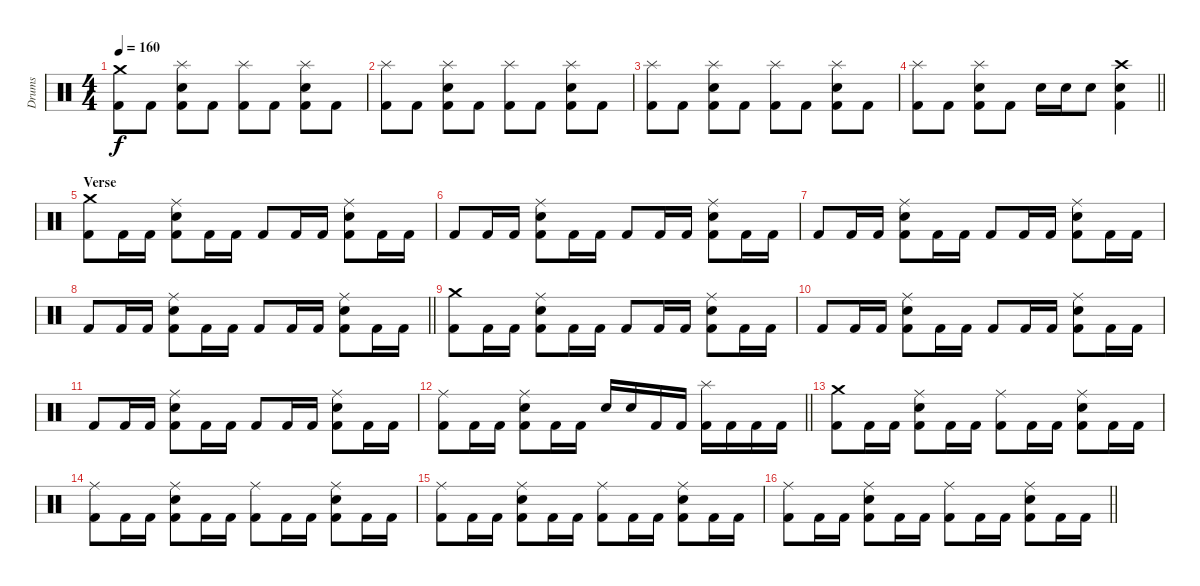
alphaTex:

\track ("Drums" "Drums") {instrument percussion}
\staff {score}
\articulation defaults
\ts (4 4)
\section ("" "")
\tempo 160
\clef neutral
\ks c
("Kick (hit) 2" "Crash medium (hit)").8{dy f} "Kick (hit) 2".8 ("Kick (hit) 2" "Snare (hit) 2" "Splash (hit)").8 "Kick (hit) 2".8 ("Kick (hit) 2" "Splash (hit)").8 "Kick (hit) 2".8 ("Kick (hit) 2" "Snare (hit) 2" "Splash (hit)").8 "Kick (hit) 2".8 |
("Kick (hit) 2" "Splash (hit)").8 "Kick (hit) 2".8 ("Kick (hit) 2" "Snare (hit) 2" "Splash (hit)").8 "Kick (hit) 2".8 ("Kick (hit) 2" "Splash (hit)").8 "Kick (hit) 2".8 ("Kick (hit) 2" "Snare (hit) 2" "Splash (hit)").8 "Kick (hit) 2".8 |
("Kick (hit) 2" "Splash (hit)").8 "Kick (hit) 2".8 ("Kick (hit) 2" "Snare (hit) 2" "Splash (hit)").8 "Kick (hit) 2".8 ("Kick (hit) 2" "Splash (hit)").8 "Kick (hit) 2".8 ("Kick (hit) 2" "Snare (hit) 2" "Splash (hit)").8 "Kick (hit) 2".8 |
\barLineRight lightlight
("Kick (hit) 2" "Splash (hit)").8 "Kick (hit) 2".8 ("Kick (hit) 2" "Snare (hit) 2" "Splash (hit)").8 "Kick (hit) 2".8 "Snare (hit) 2".16 "Snare (hit) 2".16 "Snare (hit) 2".8 ("Kick (hit) 2" "Snare (hit) 2" "Crash high (hit)").4 |
\section ("" "Verse")
("Kick (hit) 2" "Crash medium (hit)").8 "Kick (hit) 2".16 "Kick (hit) 2".16 ("Kick (hit) 2" "Snare (hit) 2" "Ride (middle)").8 "Kick (hit) 2".16 "Kick (hit) 2".16 "Kick (hit) 2".8 "Kick (hit) 2".16 "Kick (hit) 2".16 ("Kick (hit) 2" "Snare (hit) 2" "Ride (middle)").8 "Kick (hit) 2".16 "Kick (hit) 2".16 |
"Kick (hit) 2".8 "Kick (hit) 2".16 "Kick (hit) 2".16 ("Kick (hit) 2" "Snare (hit) 2" "Ride (middle)").8 "Kick (hit) 2".16 "Kick (hit) 2".16 "Kick (hit) 2".8 "Kick (hit) 2".16 "Kick (hit) 2".16 ("Kick (hit) 2" "Snare (hit) 2" "Ride (middle)").8 "Kick (hit) 2".16 "Kick (hit) 2".16 |
"Kick (hit) 2".8 "Kick (hit) 2".16 "Kick (hit) 2".16 ("Kick (hit) 2" "Snare (hit) 2" "Ride (middle)").8 "Kick (hit) 2".16 "Kick (hit) 2".16 "Kick (hit) 2".8 "Kick (hit) 2".16 "Kick (hit) 2".16 ("Kick (hit) 2" "Snare (hit) 2" "Ride (middle)").8 "Kick (hit) 2".16 "Kick (hit) 2".16 |
\barLineRight lightlight "Kick (hit) 2".8 "Kick (hit) 2".16 "Kick (hit) 2".16
("Kick (hit) 2" "Snare (hit) 2" "Ride (middle)").8 "Kick (hit) 2".16 "Kick (hit) 2".16 "Kick (hit) 2".8 "Kick (hit) 2".16 "Kick (hit) 2".16 ("Kick (hit) 2" "Snare (hit) 2" "Ride (middle)").8 "Kick (hit) 2".16 "Kick (hit) 2".16 |
\section ("" "")
("Kick (hit) 2" "Crash medium (hit)").8 "Kick (hit) 2".16 "Kick (hit) 2".16 ("Kick (hit) 2" "Snare (hit) 2" "Ride (middle)").8 "Kick (hit) 2".16 "Kick (hit) 2".16 "Kick (hit) 2".8 "Kick (hit) 2".16 "Kick (hit) 2".16 ("Kick (hit) 2" "Snare (hit) 2" "Ride (middle)").8 "Kick (hit) 2".16 "Kick (hit) 2".16 |
"Kick (hit) 2".8 "Kick (hit) 2".16 "Kick (hit) 2".16 ("Kick (hit) 2" "Snare (hit) 2" "Ride (middle)").8 "Kick (hit) 2".16 "Kick (hit) 2".16 "Kick (hit) 2".8 "Kick (hit) 2".16 "Kick (hit) 2".16 ("Kick (hit) 2" "Snare (hit) 2" "Ride (middle)").8 "Kick (hit) 2".16 "Kick (hit) 2".16 |
"Kick (hit) 2".8 "Kick (hit) 2".16 "Kick (hit) 2".16 ("Kick (hit) 2" "Snare (hit) 2" "Ride (middle)").8 "Kick (hit) 2".16 "Kick (hit) 2".16 "Kick (hit) 2".8 "Kick (hit) 2".16 "Kick (hit) 2".16 ("Kick (hit) 2" "Snare (hit) 2" "Ride (middle)").8 "Kick (hit) 2".16 "Kick (hit) 2".16 |
\barLineRight lightlight
("Kick (hit) 2" "Ride (middle)").8 "Kick (hit) 2".16 "Kick (hit) 2".16 ("Kick (hit) 2" "Snare (hit) 2" "Ride (middle)").8 "Kick (hit) 2".16 "Kick (hit) 2".16 "Snare (hit) 2".16 "Snare (hit) 2".16 "Kick (hit) 2".16 "Kick (hit) 2".16 ("Kick (hit) 2" "Splash (hit)").16 "Kick (hit) 2".16 "Kick (hit) 2".16 "Kick (hit) 2".16 |
\section ("" "")
("Kick (hit) 2" "Crash medium (hit)").8 "Kick (hit) 2".16 "Kick (hit) 2".16 ("Kick (hit) 2" "Snare (hit) 2" "Ride (middle)").8 "Kick (hit) 2".16 "Kick (hit) 2".16 ("Kick (hit) 2" "Ride (middle)").8 "Kick (hit) 2".16 "Kick (hit) 2".16 ("Kick (hit) 2" "Snare (hit) 2" "Ride (middle)").8 "Kick (hit) 2".16 "Kick (hit) 2".16 |
("Kick (hit) 2" "Ride (middle)").8 "Kick (hit) 2".16 "Kick (hit) 2".16 ("Kick (hit) 2" "Snare (hit) 2" "Ride (middle)").8 "Kick (hit) 2".16 "Kick (hit) 2".16 ("Kick (hit) 2" "Ride (middle)").8 "Kick (hit) 2".16 "Kick (hit) 2".16 ("Kick (hit) 2" "Snare (hit) 2" "Ride (middle)").8 "Kick (hit) 2".16 "Kick (hit) 2".16 |
("Kick (hit) 2" "Ride (middle)").8 "Kick (hit) 2".16 "Kick (hit) 2".16 ("Kick (hit) 2" "Snare (hit) 2" "Ride (middle)").8 "Kick (hit) 2".16 "Kick (hit) 2".16 ("Kick (hit) 2" "Ride (middle)").8 "Kick (hit) 2".16 "Kick (hit) 2".16 ("Kick (hit) 2" "Snare (hit) 2" "Ride (middle)").8 "Kick (hit) 2".16 "Kick (hit) 2".16 |
\barLineRight lightlight
("Kick (hit) 2" "Ride (middle)").8 "Kick (hit) 2".16 "Kick (hit) 2".16 ("Kick (hit) 2" "Snare (hit) 2" "Ride (middle)").8 "Kick (hit) 2".16 "Kick (hit) 2".16 ("Kick (hit) 2" "Ride (middle)").8 "Kick (hit) 2".16 "Kick (hit) 2".16 ("Kick (hit) 2" "Snare (hit) 2" "Ride (middle)").8 "Kick (hit) 2".16 "Kick (hit) 2".16
